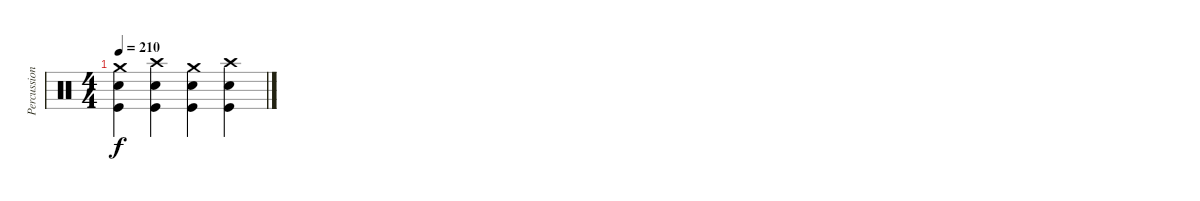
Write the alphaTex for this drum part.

\track ("Percussions" "Percussion") {instrument percussion}
\staff {score}
\articulation defaults
\ts (4 4)
\tempo 210
\clef neutral
\ks c
("Crash medium (hit)" "Snare (hit) 2" "Kick (hit)").4{dy f} ("Crash high (hit)" "Snare (hit) 2" "Kick (hit)").4 ("Crash medium (hit)" "Snare (hit) 2" "Kick (hit)").4 ("Crash high (hit)" "Snare (hit) 2" "Kick (hit)").4
